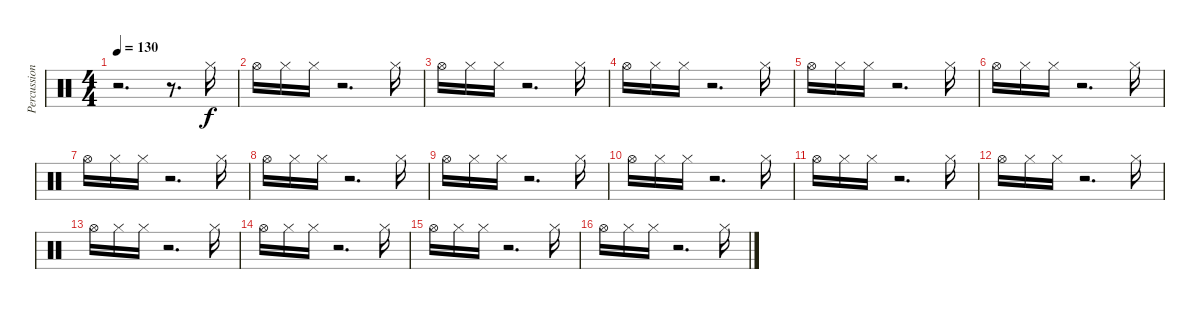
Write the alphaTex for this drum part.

\track ("Percussion" "Percussion") {instrument percussion}
\staff {score}
\articulation defaults
\ts (4 4)
\tempo 130
\clef neutral
\ks c
r.2{d dy f} r.8{d} "Hi-Hat (closed)".16 |
"Hi-Hat (open)".16 "Hi-Hat (closed)".16 "Hi-Hat (closed)".16 r.2{d} "Hi-Hat (closed)".16 |
"Hi-Hat (open)".16 "Hi-Hat (closed)".16 "Hi-Hat (closed)".16 r.2{d} "Hi-Hat (closed)".16 |
"Hi-Hat (open)".16 "Hi-Hat (closed)".16 "Hi-Hat (closed)".16 r.2{d} "Hi-Hat (closed)".16 |
"Hi-Hat (open)".16 "Hi-Hat (closed)".16 "Hi-Hat (closed)".16 r.2{d} "Hi-Hat (closed)".16 |
"Hi-Hat (open)".16 "Hi-Hat (closed)".16 "Hi-Hat (closed)".16 r.2{d} "Hi-Hat (closed)".16 |
"Hi-Hat (open)".16 "Hi-Hat (closed)".16 "Hi-Hat (closed)".16 r.2{d} "Hi-Hat (closed)".16 |
"Hi-Hat (open)".16 "Hi-Hat (closed)".16 "Hi-Hat (closed)".16 r.2{d} "Hi-Hat (closed)".16 |
"Hi-Hat (open)".16 "Hi-Hat (closed)".16 "Hi-Hat (closed)".16 r.2{d} "Hi-Hat (closed)".16 |
"Hi-Hat (open)".16 "Hi-Hat (closed)".16 "Hi-Hat (closed)".16 r.2{d} "Hi-Hat (closed)".16 |
"Hi-Hat (open)".16 "Hi-Hat (closed)".16 "Hi-Hat (closed)".16 r.2{d} "Hi-Hat (closed)".16 |
"Hi-Hat (open)".16 "Hi-Hat (closed)".16 "Hi-Hat (closed)".16 r.2{d} "Hi-Hat (closed)".16 |
"Hi-Hat (open)".16 "Hi-Hat (closed)".16 "Hi-Hat (closed)".16 r.2{d} "Hi-Hat (closed)".16 |
"Hi-Hat (open)".16 "Hi-Hat (closed)".16 "Hi-Hat (closed)".16 r.2{d} "Hi-Hat (closed)".16 |
"Hi-Hat (open)".16 "Hi-Hat (closed)".16 "Hi-Hat (closed)".16 r.2{d} "Hi-Hat (closed)".16 |
"Hi-Hat (open)".16 "Hi-Hat (closed)".16 "Hi-Hat (closed)".16 r.2{d} "Hi-Hat (closed)".16
